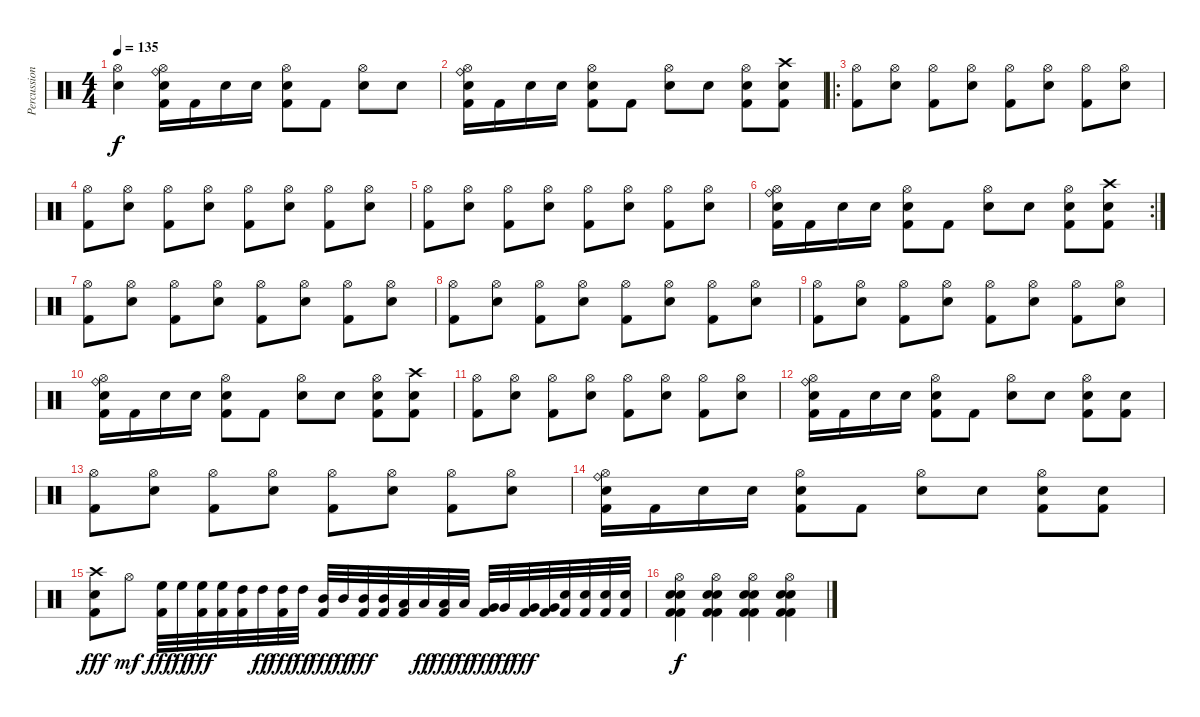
\track ("Percussions" "Percussion") {instrument percussion}
\staff {score}
\articulation defaults
\ts (4 4)
\tempo 135
\clef neutral
\ks c
("Hi-Hat (open)" "Electric Snare (hit)").4{dy f} ("Hi-Hat (open)" "Ride (bell)" "Electric Snare (hit)" "Kick (hit) 2").16 "Kick (hit) 2".16 "Electric Snare (hit)".16 "Electric Snare (hit)".16 ("Hi-Hat (open)" "Electric Snare (hit)" "Kick (hit) 2").8 "Kick (hit) 2".8 ("Hi-Hat (open)" "Electric Snare (hit)").8 "Electric Snare (hit)".8 |
("Hi-Hat (open)" "Ride (bell)" "Snare (hit) 2" "Kick (hit) 2").16 "Kick (hit) 2".16 "Snare (hit) 2".16 "Electric Snare (hit)".16 ("Hi-Hat (open)" "Snare (hit) 2" "Kick (hit) 2").8 "Kick (hit) 2".8 ("Hi-Hat (open)" "Snare (hit) 2").8 "Electric Snare (hit)".8 ("Hi-Hat (open)" "Snare (hit) 2" "Kick (hit) 2").8 ("Crash high (hit)" "Electric Snare (hit)" "Kick (hit) 2").8 |
\ro
("Hi-Hat (open)" "Kick (hit) 2").8 ("Hi-Hat (open)" "Electric Snare (hit)").8 ("Hi-Hat (open)" "Kick (hit) 2").8 ("Hi-Hat (open)" "Electric Snare (hit)").8 ("Hi-Hat (open)" "Kick (hit) 2").8 ("Hi-Hat (open)" "Electric Snare (hit)").8 ("Hi-Hat (open)" "Kick (hit) 2").8 ("Hi-Hat (open)" "Electric Snare (hit)").8 |
("Hi-Hat (open)" "Kick (hit) 2").8 ("Hi-Hat (open)" "Electric Snare (hit)").8 ("Hi-Hat (open)" "Kick (hit) 2").8 ("Hi-Hat (open)" "Electric Snare (hit)").8 ("Hi-Hat (open)" "Kick (hit) 2").8 ("Hi-Hat (open)" "Electric Snare (hit)").8 ("Hi-Hat (open)" "Kick (hit) 2").8 ("Hi-Hat (open)" "Electric Snare (hit)").8 |
("Hi-Hat (open)" "Kick (hit) 2").8 ("Hi-Hat (open)" "Electric Snare (hit)").8 ("Hi-Hat (open)" "Kick (hit) 2").8 ("Hi-Hat (open)" "Electric Snare (hit)").8 ("Hi-Hat (open)" "Kick (hit) 2").8 ("Hi-Hat (open)" "Electric Snare (hit)").8 ("Hi-Hat (open)" "Kick (hit) 2").8 ("Hi-Hat (open)" "Electric Snare (hit)").8 |
\rc 2
("Hi-Hat (open)" "Ride (bell)" "Snare (hit) 2" "Kick (hit) 2").16 "Kick (hit) 2".16 "Snare (hit) 2".16 "Electric Snare (hit)".16 ("Hi-Hat (open)" "Snare (hit) 2" "Kick (hit) 2").8 "Kick (hit) 2".8 ("Hi-Hat (open)" "Snare (hit) 2").8 "Electric Snare (hit)".8 ("Hi-Hat (open)" "Snare (hit) 2" "Kick (hit) 2").8 ("Crash high (hit)" "Electric Snare (hit)" "Kick (hit) 2").8 |
("Hi-Hat (open)" "Kick (hit) 2").8 ("Hi-Hat (open)" "Electric Snare (hit)").8 ("Hi-Hat (open)" "Kick (hit) 2").8 ("Hi-Hat (open)" "Electric Snare (hit)").8 ("Hi-Hat (open)" "Kick (hit) 2").8 ("Hi-Hat (open)" "Electric Snare (hit)").8 ("Hi-Hat (open)" "Kick (hit) 2").8 ("Hi-Hat (open)" "Electric Snare (hit)").8 |
("Hi-Hat (open)" "Kick (hit) 2").8 ("Hi-Hat (open)" "Electric Snare (hit)").8 ("Hi-Hat (open)" "Kick (hit) 2").8 ("Hi-Hat (open)" "Electric Snare (hit)").8 ("Hi-Hat (open)" "Kick (hit) 2").8 ("Hi-Hat (open)" "Electric Snare (hit)").8 ("Hi-Hat (open)" "Kick (hit) 2").8 ("Hi-Hat (open)" "Electric Snare (hit)").8 |
("Hi-Hat (open)" "Kick (hit) 2").8 ("Hi-Hat (open)" "Electric Snare (hit)").8 ("Hi-Hat (open)" "Kick (hit) 2").8 ("Hi-Hat (open)" "Electric Snare (hit)").8 ("Hi-Hat (open)" "Kick (hit) 2").8 ("Hi-Hat (open)" "Electric Snare (hit)").8 ("Hi-Hat (open)" "Kick (hit) 2").8 ("Hi-Hat (open)" "Electric Snare (hit)").8 |
("Hi-Hat (open)" "Ride (bell)" "Snare (hit) 2" "Kick (hit) 2").16 "Kick (hit) 2".16 "Snare (hit) 2".16 "Electric Snare (hit)".16 ("Hi-Hat (open)" "Snare (hit) 2" "Kick (hit) 2").8 "Kick (hit) 2".8 ("Hi-Hat (open)" "Snare (hit) 2").8 "Electric Snare (hit)".8 ("Hi-Hat (open)" "Snare (hit) 2" "Kick (hit) 2").8 ("Crash high (hit)" "Electric Snare (hit)" "Kick (hit) 2").8 |
("Hi-Hat (open)" "Kick (hit) 2").8 ("Hi-Hat (open)" "Electric Snare (hit)").8 ("Hi-Hat (open)" "Kick (hit) 2").8 ("Hi-Hat (open)" "Electric Snare (hit)").8 ("Hi-Hat (open)" "Kick (hit) 2").8 ("Hi-Hat (open)" "Electric Snare (hit)").8 ("Hi-Hat (open)" "Kick (hit) 2").8 ("Hi-Hat (open)" "Electric Snare (hit)").8 |
("Hi-Hat (open)" "Ride (bell)" "Electric Snare (hit)" "Kick (hit) 2").16 "Kick (hit) 2".16 "Electric Snare (hit)".16 "Electric Snare (hit)".16 ("Hi-Hat (open)" "Electric Snare (hit)" "Kick (hit) 2").8 "Kick (hit) 2".8 ("Hi-Hat (open)" "Electric Snare (hit)").8 "Electric Snare (hit)".8 ("Hi-Hat (open)" "Electric Snare (hit)" "Kick (hit) 2").8 ("Electric Snare (hit)" "Kick (hit) 2").8 |
("Hi-Hat (open)" "Kick (hit) 2").8 ("Hi-Hat (open)" "Electric Snare (hit)").8 ("Hi-Hat (open)" "Kick (hit) 2").8 ("Hi-Hat (open)" "Electric Snare (hit)").8 ("Hi-Hat (open)" "Kick (hit) 2").8 ("Hi-Hat (open)" "Electric Snare (hit)").8 ("Hi-Hat (open)" "Kick (hit) 2").8 ("Hi-Hat (open)" "Electric Snare (hit)").8 |
("Hi-Hat (open)" "Ride (bell)" "Electric Snare (hit)" "Kick (hit) 2").16 "Kick (hit) 2".16 "Electric Snare (hit)".16 "Electric Snare (hit)".16 ("Hi-Hat (open)" "Electric Snare (hit)" "Kick (hit) 2").8 "Kick (hit) 2".8 ("Hi-Hat (open)" "Electric Snare (hit)").8 "Electric Snare (hit)".8 ("Hi-Hat (open)" "Electric Snare (hit)" "Kick (hit) 2").8 ("Electric Snare (hit)" "Kick (hit) 2").8 |
("Crash high (hit)" "Electric Snare (hit)" "Kick (hit) 2").8{dy fff} "Hi-Hat (open)".8{dy mf} ("High Floor Tom (hit)" "Kick (hit) 2").32{dy fff} "High Floor Tom (hit)".32{dy ff} ("High Floor Tom (hit)" "Kick (hit) 2").32{dy fff} ("High Floor Tom (hit)" "Kick (hit) 2").32 ("High Tom (hit)" "Kick (hit) 2").32 "High Tom (hit)".32{dy ff} ("High Tom (hit)" "Kick (hit) 2").32{dy fff} "High Tom (hit)".32{dy ff} ("Mid Tom (hit)" "Kick (hit) 2").32{dy fff} "Mid Tom (hit)".32{dy ff} ("Mid Tom (hit)" "Kick (hit) 2").32{dy fff} ("Mid Tom (hit)" "Kick (hit) 2").32 ("Low Tom (hit)" "Kick (hit) 2").32 "Low Tom (hit)".32{dy ff} ("Low Tom (hit)" "Kick (hit) 2").32{dy fff} "Low Tom (hit)".32{dy ff} ("Very Low Tom (hit)" "Kick (hit) 2").32{dy fff} "Very Low Tom (hit)".32{dy ff} ("Very Low Tom (hit)" "Kick (hit) 2").32{dy fff} ("Very Low Tom (hit)" "Kick (hit) 2").32 ("Electric Snare (hit)" "Kick (hit) 2").32 ("Electric Snare (hit)" "Kick (hit) 2").32 ("Electric Snare (hit)" "Kick (hit) 2").32 ("Electric Snare (hit)" "Kick (hit) 2").32 |
("Hi-Hat (open)" "Electric Snare (hit)" "Electric Snare (hit)" "Kick (hit) 2" "Kick (hit) 2").4{dy f} ("Hi-Hat (open)" "Electric Snare (hit)" "Electric Snare (hit)" "Kick (hit) 2" "Kick (hit) 2").4 ("Hi-Hat (open)" "Electric Snare (hit)" "Electric Snare (hit)" "Kick (hit) 2" "Kick (hit) 2").4 ("Hi-Hat (open)" "Electric Snare (hit)" "Electric Snare (hit)" "Kick (hit) 2" "Kick (hit) 2").4
